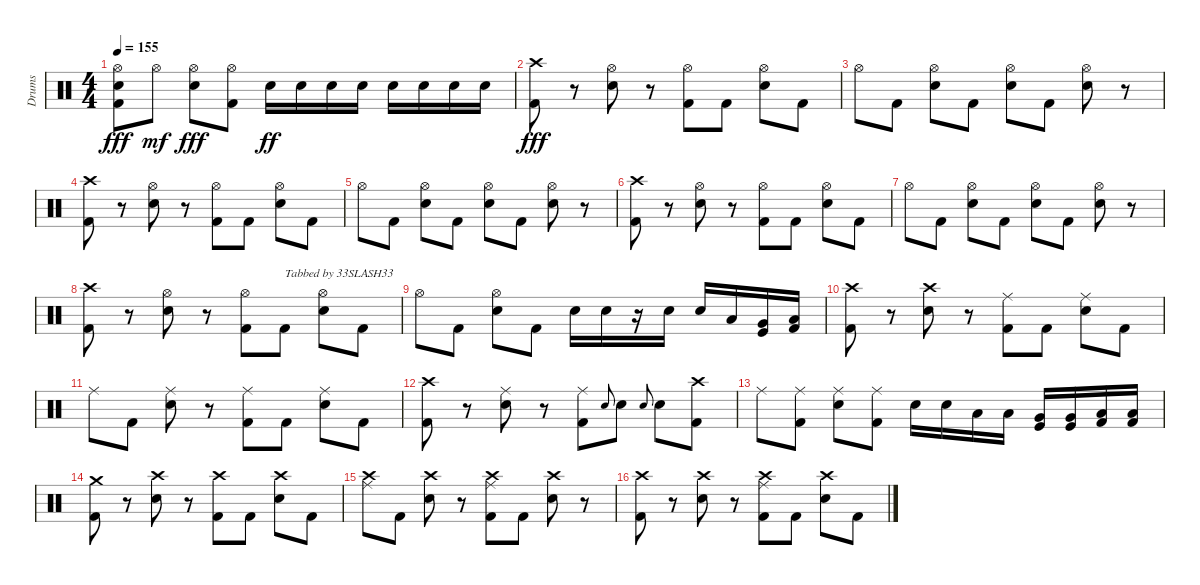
\track ("Drums" "Drums") {instrument percussion}
\staff {score}
\articulation defaults
\ts (4 4)
\tempo 155
\clef neutral
\ks c
("Hi-Hat (open)" "Snare (hit) 2" "Kick (hit) 2").8{dy fff} "Hi-Hat (open)".8{dy mf} ("Hi-Hat (open)" "Snare (hit) 2").8{dy fff} ("Hi-Hat (open)" "Kick (hit) 2").8 "Snare (hit) 2".16{dy ff} "Snare (hit) 2".16 "Snare (hit) 2".16 "Snare (hit) 2".16 "Snare (hit) 2".16 "Snare (hit) 2".16 "Snare (hit) 2".16 "Snare (hit) 2".16 |
("Crash high (hit)" "Kick (hit) 2").8{dy fff} r.8 ("Hi-Hat (open)" "Snare (hit) 2").8 r.8 ("Hi-Hat (open)" "Kick (hit) 2").8 "Kick (hit) 2".8 ("Hi-Hat (open)" "Snare (hit) 2").8 "Kick (hit) 2".8 |
"Hi-Hat (open)".8 "Kick (hit) 2".8 ("Hi-Hat (open)" "Snare (hit) 2").8 "Kick (hit) 2".8 ("Hi-Hat (open)" "Snare (hit) 2").8 "Kick (hit) 2".8 ("Hi-Hat (open)" "Snare (hit) 2").8 r.8 |
("Crash high (hit)" "Kick (hit) 2").8 r.8 ("Hi-Hat (open)" "Snare (hit) 2").8 r.8 ("Hi-Hat (open)" "Kick (hit) 2").8 "Kick (hit) 2".8 ("Hi-Hat (open)" "Snare (hit) 2").8 "Kick (hit) 2".8 |
"Hi-Hat (open)".8 "Kick (hit) 2".8 ("Hi-Hat (open)" "Snare (hit) 2").8 "Kick (hit) 2".8 ("Hi-Hat (open)" "Snare (hit) 2").8 "Kick (hit) 2".8 ("Hi-Hat (open)" "Snare (hit) 2").8 r.8 |
("Crash high (hit)" "Kick (hit) 2").8 r.8 ("Hi-Hat (open)" "Snare (hit) 2").8 r.8 ("Hi-Hat (open)" "Kick (hit) 2").8 "Kick (hit) 2".8 ("Hi-Hat (open)" "Snare (hit) 2").8 "Kick (hit) 2".8 |
"Hi-Hat (open)".8 "Kick (hit) 2".8 ("Hi-Hat (open)" "Snare (hit) 2").8 "Kick (hit) 2".8 ("Hi-Hat (open)" "Snare (hit) 2").8 "Kick (hit) 2".8 ("Hi-Hat (open)" "Snare (hit) 2").8 r.8 |
("Crash high (hit)" "Kick (hit) 2").8 r.8 ("Hi-Hat (open)" "Snare (hit) 2").8 r.8 ("Hi-Hat (open)" "Kick (hit) 2").8 "Kick (hit) 2".8{txt "Tabbed by 33SLASH33"} ("Hi-Hat (open)" "Snare (hit) 2").8 "Kick (hit) 2".8 |
"Hi-Hat (open)".8 "Kick (hit) 2".8 ("Hi-Hat (open)" "Snare (hit) 2").8 "Kick (hit) 2".8 "Snare (hit) 2".16 "Snare (hit) 2".16 r.16 "Snare (hit) 2".16 "Snare (hit) 2".16 "Low Tom (hit)".16 ("Very Low Tom (hit)" "Kick (hit)").16 ("Low Floor Tom (hit)" "Kick (hit) 2").16 |
("Crash high (hit)" "Kick (hit) 2").8 r.8 ("Crash high (hit)" "Snare (hit) 2").8 r.8 ("Ride (middle)" "Kick (hit) 2").8 "Kick (hit) 2".8 ("Ride (middle)" "Snare (hit) 2").8 "Kick (hit) 2".8 |
"Ride (middle)".8 "Kick (hit) 2".8 ("Ride (middle)" "Snare (hit) 2").8 r.8 ("Ride (middle)" "Kick (hit) 2").8 "Kick (hit) 2".8 ("Ride (middle)" "Snare (hit) 2").8 "Kick (hit) 2".8 |
("Crash high (hit)" "Kick (hit) 2").8 r.8 ("Ride (middle)" "Snare (hit) 2").8 r.8 ("Ride (middle)" "Kick (hit) 2").8 "Snare (hit) 2".8{gr onbeat} "Snare (hit) 2".8 "Snare (hit) 2".8{gr onbeat} "Snare (hit) 2".8 ("Crash high (hit)" "Kick (hit) 2").8 |
"Ride (middle)".8 ("Ride (middle)" "Kick (hit) 2").8 ("Ride (middle)" "Snare (hit) 2").8 ("Ride (middle)" "Kick (hit) 2").8 "Snare (hit) 2".16 "Snare (hit) 2".16 "Low Tom (hit)".16 "Low Tom (hit)".16 ("Very Low Tom (hit)" "Kick (hit)").16 ("Very Low Tom (hit)" "Kick (hit)").16 ("Low Floor Tom (hit)" "Kick (hit) 2").16 ("Low Floor Tom (hit)" "Kick (hit) 2").16 |
("Crash medium (hit)" "Kick (hit) 2").8 r.8 ("Crash high (hit)" "Snare (hit) 2").8 r.8 ("Crash high (hit)" "Kick (hit) 2").8 "Kick (hit) 2".8 ("Crash high (hit)" "Snare (hit) 2").8 "Kick (hit) 2".8 |
("Crash high (hit)" "Ride (middle)").8 "Kick (hit) 2".8 ("Crash high (hit)" "Snare (hit) 2").8 r.8 ("Crash high (hit)" "Ride (middle)" "Kick (hit) 2").8 "Kick (hit) 2".8 ("Crash high (hit)" "Snare (hit) 2").8 r.8 |
("Crash high (hit)" "Kick (hit) 2").8 r.8 ("Crash high (hit)" "Snare (hit) 2").8 r.8 ("Crash high (hit)" "Ride (middle)" "Kick (hit) 2").8 "Kick (hit) 2".8 ("Crash high (hit)" "Snare (hit) 2").8 "Kick (hit) 2".8
